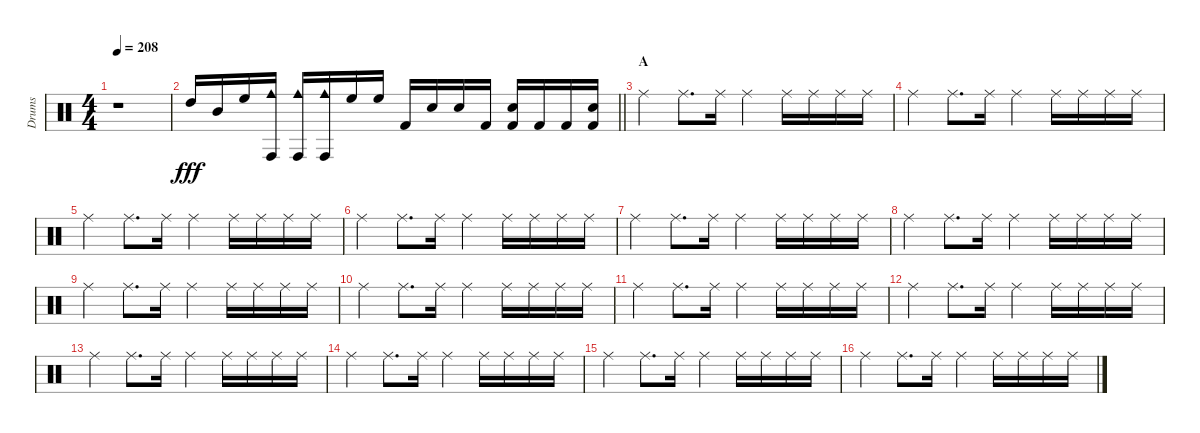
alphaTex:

\track ("Drums" "Drums") {instrument percussion}
\staff {score}
\articulation defaults
\ts (4 4)
\tempo 208
\clef neutral
\ks c
r.1{dy fff} |
\barLineRight lightlight "High Tom (hit)".16 "Mid Tom (hit)".16 "High Floor Tom (hit)".16
("Cowbell medium (hit)" "Conga high (hit)").16 ("Cowbell medium (hit)" "Conga high (hit)").16 ("Cowbell medium (hit)" "Conga high (hit)").16 "High Floor Tom (hit)".16 "High Floor Tom (hit)".16 "Kick (hit) 2".16 "Snare (hit) 2".16 "Snare (hit) 2".16 "Kick (hit) 2".16 ("Snare (hit) 2" "Kick (hit) 2").16 "Kick (hit) 2".16 "Kick (hit) 2".16 ("Snare (hit) 2" "Kick (hit) 2").16 |
\section ("" "A")
"Ride (middle)".4 "Ride (middle)".8{d} "Ride (middle)".16 "Ride (middle)".4 "Ride (middle)".16 "Ride (middle)".16 "Ride (middle)".16 "Ride (middle)".16 |
"Ride (middle)".4 "Ride (middle)".8{d} "Ride (middle)".16 "Ride (middle)".4 "Ride (middle)".16 "Ride (middle)".16 "Ride (middle)".16 "Ride (middle)".16 |
"Ride (middle)".4 "Ride (middle)".8{d} "Ride (middle)".16 "Ride (middle)".4 "Ride (middle)".16 "Ride (middle)".16 "Ride (middle)".16 "Ride (middle)".16 |
"Ride (middle)".4 "Ride (middle)".8{d} "Ride (middle)".16 "Ride (middle)".4 "Ride (middle)".16 "Ride (middle)".16 "Ride (middle)".16 "Ride (middle)".16 |
"Ride (middle)".4 "Ride (middle)".8{d} "Ride (middle)".16 "Ride (middle)".4 "Ride (middle)".16 "Ride (middle)".16 "Ride (middle)".16 "Ride (middle)".16 |
"Ride (middle)".4 "Ride (middle)".8{d} "Ride (middle)".16 "Ride (middle)".4 "Ride (middle)".16 "Ride (middle)".16 "Ride (middle)".16 "Ride (middle)".16 |
"Ride (middle)".4 "Ride (middle)".8{d} "Ride (middle)".16 "Ride (middle)".4 "Ride (middle)".16 "Ride (middle)".16 "Ride (middle)".16 "Ride (middle)".16 |
"Ride (middle)".4 "Ride (middle)".8{d} "Ride (middle)".16 "Ride (middle)".4 "Ride (middle)".16 "Ride (middle)".16 "Ride (middle)".16 "Ride (middle)".16 |
"Ride (middle)".4 "Ride (middle)".8{d} "Ride (middle)".16 "Ride (middle)".4 "Ride (middle)".16 "Ride (middle)".16 "Ride (middle)".16 "Ride (middle)".16 |
"Ride (middle)".4 "Ride (middle)".8{d} "Ride (middle)".16 "Ride (middle)".4 "Ride (middle)".16 "Ride (middle)".16 "Ride (middle)".16 "Ride (middle)".16 |
"Ride (middle)".4 "Ride (middle)".8{d} "Ride (middle)".16 "Ride (middle)".4 "Ride (middle)".16 "Ride (middle)".16 "Ride (middle)".16 "Ride (middle)".16 |
"Ride (middle)".4 "Ride (middle)".8{d} "Ride (middle)".16 "Ride (middle)".4 "Ride (middle)".16 "Ride (middle)".16 "Ride (middle)".16 "Ride (middle)".16 |
"Ride (middle)".4 "Ride (middle)".8{d} "Ride (middle)".16 "Ride (middle)".4 "Ride (middle)".16 "Ride (middle)".16 "Ride (middle)".16 "Ride (middle)".16 |
"Ride (middle)".4 "Ride (middle)".8{d} "Ride (middle)".16 "Ride (middle)".4 "Ride (middle)".16 "Ride (middle)".16 "Ride (middle)".16 "Ride (middle)".16
